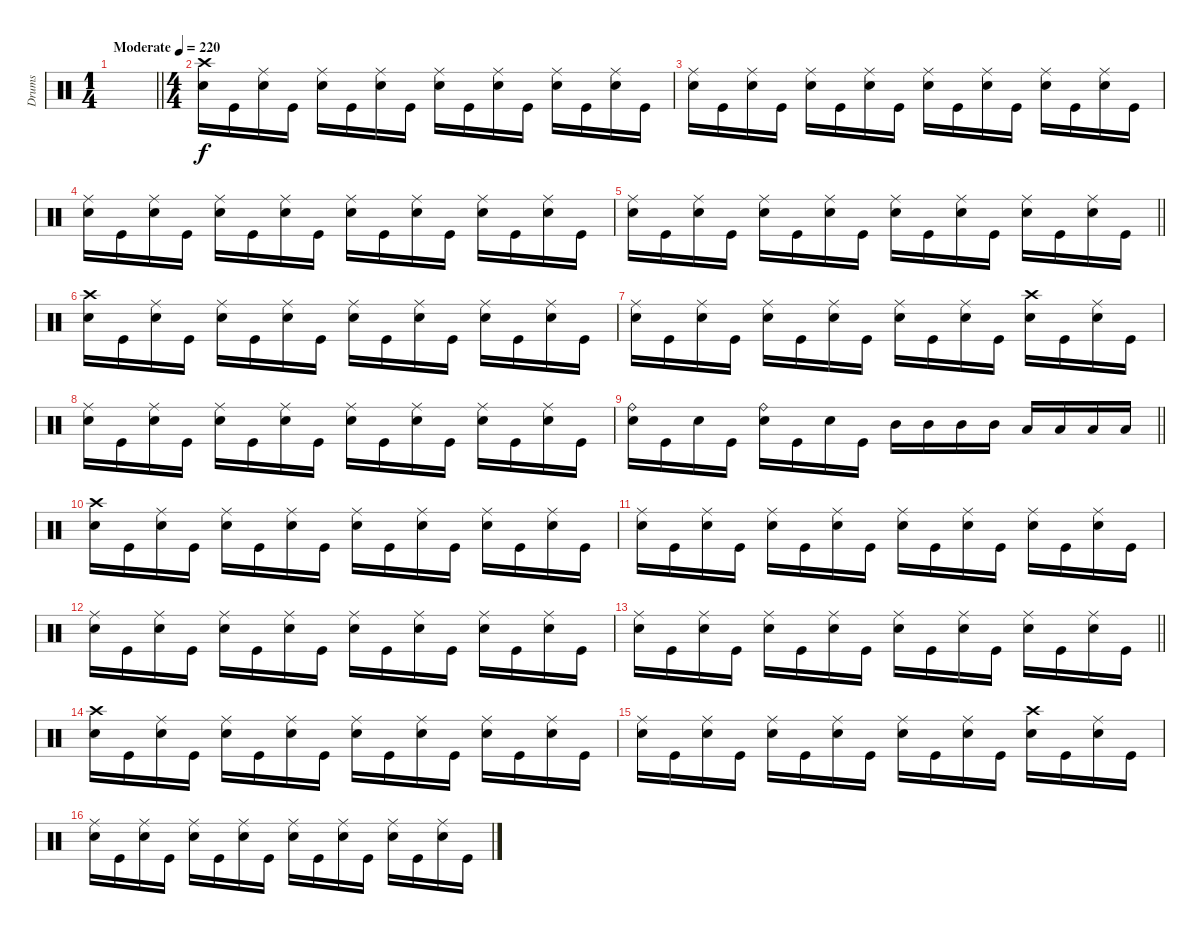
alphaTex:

\track ("Drums" "Drums") {instrument percussion}
\staff
\articulation defaults
\ts (1 4)
\tempo (220 "Moderate")
\clef neutral
\barLineRight lightlight
\ks c
|
\ts (4 4)
("Crash high (hit)" "Electric Snare (hit)").16 "Kick (hit)".16 ("Ride (middle)" "Electric Snare (hit)").16 "Kick (hit)".16 ("Ride (middle)" "Electric Snare (hit)").16 "Kick (hit)".16 ("Ride (middle)" "Electric Snare (hit)").16 "Kick (hit)".16 ("Ride (middle)" "Electric Snare (hit)").16 "Kick (hit)".16 ("Ride (middle)" "Electric Snare (hit)").16 "Kick (hit)".16 ("Ride (middle)" "Electric Snare (hit)").16 "Kick (hit)".16 ("Ride (middle)" "Electric Snare (hit)").16 "Kick (hit)".16 |
("Ride (middle)" "Electric Snare (hit)").16 "Kick (hit)".16 ("Ride (middle)" "Electric Snare (hit)").16 "Kick (hit)".16 ("Ride (middle)" "Electric Snare (hit)").16 "Kick (hit)".16 ("Ride (middle)" "Electric Snare (hit)").16 "Kick (hit)".16 ("Ride (middle)" "Electric Snare (hit)").16 "Kick (hit)".16 ("Ride (middle)" "Electric Snare (hit)").16 "Kick (hit)".16 ("Ride (middle)" "Electric Snare (hit)").16 "Kick (hit)".16 ("Ride (middle)" "Electric Snare (hit)").16 "Kick (hit)".16 |
("Ride (middle)" "Electric Snare (hit)").16 "Kick (hit)".16 ("Ride (middle)" "Electric Snare (hit)").16 "Kick (hit)".16 ("Ride (middle)" "Electric Snare (hit)").16 "Kick (hit)".16 ("Ride (middle)" "Electric Snare (hit)").16 "Kick (hit)".16 ("Ride (middle)" "Electric Snare (hit)").16 "Kick (hit)".16 ("Ride (middle)" "Electric Snare (hit)").16 "Kick (hit)".16 ("Ride (middle)" "Electric Snare (hit)").16 "Kick (hit)".16 ("Ride (middle)" "Electric Snare (hit)").16 "Kick (hit)".16 |
\barLineRight lightlight
("Ride (middle)" "Electric Snare (hit)").16 "Kick (hit)".16 ("Ride (middle)" "Electric Snare (hit)").16 "Kick (hit)".16 ("Ride (middle)" "Electric Snare (hit)").16 "Kick (hit)".16 ("Ride (middle)" "Electric Snare (hit)").16 "Kick (hit)".16 ("Ride (middle)" "Electric Snare (hit)").16 "Kick (hit)".16 ("Ride (middle)" "Electric Snare (hit)").16 "Kick (hit)".16 ("Ride (middle)" "Electric Snare (hit)").16 "Kick (hit)".16 ("Ride (middle)" "Electric Snare (hit)").16 "Kick (hit)".16 |
("Crash high (hit)" "Electric Snare (hit)").16 "Kick (hit)".16 ("Ride (middle)" "Electric Snare (hit)").16 "Kick (hit)".16 ("Ride (middle)" "Electric Snare (hit)").16 "Kick (hit)".16 ("Ride (middle)" "Electric Snare (hit)").16 "Kick (hit)".16 ("Ride (middle)" "Electric Snare (hit)").16 "Kick (hit)".16 ("Ride (middle)" "Electric Snare (hit)").16 "Kick (hit)".16 ("Ride (middle)" "Electric Snare (hit)").16 "Kick (hit)".16 ("Ride (middle)" "Electric Snare (hit)").16 "Kick (hit)".16 |
("Ride (middle)" "Electric Snare (hit)").16 "Kick (hit)".16 ("Ride (middle)" "Electric Snare (hit)").16 "Kick (hit)".16 ("Ride (middle)" "Electric Snare (hit)").16 "Kick (hit)".16 ("Ride (middle)" "Electric Snare (hit)").16 "Kick (hit)".16 ("Ride (middle)" "Electric Snare (hit)").16 "Kick (hit)".16 ("Ride (middle)" "Electric Snare (hit)").16 "Kick (hit)".16 ("Crash high (hit)" "Electric Snare (hit)").16 "Kick (hit)".16 ("Ride (middle)" "Electric Snare (hit)").16 "Kick (hit)".16 |
("Ride (middle)" "Electric Snare (hit)").16 "Kick (hit)".16 ("Ride (middle)" "Electric Snare (hit)").16 "Kick (hit)".16 ("Ride (middle)" "Electric Snare (hit)").16 "Kick (hit)".16 ("Ride (middle)" "Electric Snare (hit)").16 "Kick (hit)".16 ("Ride (middle)" "Electric Snare (hit)").16 "Kick (hit)".16 ("Ride (middle)" "Electric Snare (hit)").16 "Kick (hit)".16 ("Ride (middle)" "Electric Snare (hit)").16 "Kick (hit)".16 ("Ride (middle)" "Electric Snare (hit)").16 "Kick (hit)".16 |
\barLineRight lightlight
("Ride (bell)" "Electric Snare (hit)").16 "Kick (hit)".16 "Electric Snare (hit)".16 "Kick (hit)".16 ("Ride (bell)" "Electric Snare (hit)").16 "Kick (hit)".16 "Electric Snare (hit)".16 "Kick (hit)".16 "Mid Tom (hit)".16 "Mid Tom (hit)".16 "Mid Tom (hit)".16 "Mid Tom (hit)".16 "Low Tom (hit)".16 "Low Tom (hit)".16 "Low Tom (hit)".16 "Low Tom (hit)".16 |
("Crash high (hit)" "Electric Snare (hit)").16 "Kick (hit)".16 ("Ride (middle)" "Electric Snare (hit)").16 "Kick (hit)".16 ("Ride (middle)" "Electric Snare (hit)").16 "Kick (hit)".16 ("Ride (middle)" "Electric Snare (hit)").16 "Kick (hit)".16 ("Ride (middle)" "Electric Snare (hit)").16 "Kick (hit)".16 ("Ride (middle)" "Electric Snare (hit)").16 "Kick (hit)".16 ("Ride (middle)" "Electric Snare (hit)").16 "Kick (hit)".16 ("Ride (middle)" "Electric Snare (hit)").16 "Kick (hit)".16 |
("Ride (middle)" "Electric Snare (hit)").16 "Kick (hit)".16 ("Ride (middle)" "Electric Snare (hit)").16 "Kick (hit)".16 ("Ride (middle)" "Electric Snare (hit)").16 "Kick (hit)".16 ("Ride (middle)" "Electric Snare (hit)").16 "Kick (hit)".16 ("Ride (middle)" "Electric Snare (hit)").16 "Kick (hit)".16 ("Ride (middle)" "Electric Snare (hit)").16 "Kick (hit)".16 ("Ride (middle)" "Electric Snare (hit)").16 "Kick (hit)".16 ("Ride (middle)" "Electric Snare (hit)").16 "Kick (hit)".16 |
("Ride (middle)" "Electric Snare (hit)").16 "Kick (hit)".16 ("Ride (middle)" "Electric Snare (hit)").16 "Kick (hit)".16 ("Ride (middle)" "Electric Snare (hit)").16 "Kick (hit)".16 ("Ride (middle)" "Electric Snare (hit)").16 "Kick (hit)".16 ("Ride (middle)" "Electric Snare (hit)").16 "Kick (hit)".16 ("Ride (middle)" "Electric Snare (hit)").16 "Kick (hit)".16 ("Ride (middle)" "Electric Snare (hit)").16 "Kick (hit)".16 ("Ride (middle)" "Electric Snare (hit)").16 "Kick (hit)".16 |
\barLineRight lightlight
("Ride (middle)" "Electric Snare (hit)").16 "Kick (hit)".16 ("Ride (middle)" "Electric Snare (hit)").16 "Kick (hit)".16 ("Ride (middle)" "Electric Snare (hit)").16 "Kick (hit)".16 ("Ride (middle)" "Electric Snare (hit)").16 "Kick (hit)".16 ("Ride (middle)" "Electric Snare (hit)").16 "Kick (hit)".16 ("Ride (middle)" "Electric Snare (hit)").16 "Kick (hit)".16 ("Ride (middle)" "Electric Snare (hit)").16 "Kick (hit)".16 ("Ride (middle)" "Electric Snare (hit)").16 "Kick (hit)".16 |
("Crash high (hit)" "Electric Snare (hit)").16 "Kick (hit)".16 ("Ride (middle)" "Electric Snare (hit)").16 "Kick (hit)".16 ("Ride (middle)" "Electric Snare (hit)").16 "Kick (hit)".16 ("Ride (middle)" "Electric Snare (hit)").16 "Kick (hit)".16 ("Ride (middle)" "Electric Snare (hit)").16 "Kick (hit)".16 ("Ride (middle)" "Electric Snare (hit)").16 "Kick (hit)".16 ("Ride (middle)" "Electric Snare (hit)").16 "Kick (hit)".16 ("Ride (middle)" "Electric Snare (hit)").16 "Kick (hit)".16 |
("Ride (middle)" "Electric Snare (hit)").16 "Kick (hit)".16 ("Ride (middle)" "Electric Snare (hit)").16 "Kick (hit)".16 ("Ride (middle)" "Electric Snare (hit)").16 "Kick (hit)".16 ("Ride (middle)" "Electric Snare (hit)").16 "Kick (hit)".16 ("Ride (middle)" "Electric Snare (hit)").16 "Kick (hit)".16 ("Ride (middle)" "Electric Snare (hit)").16 "Kick (hit)".16 ("Crash high (hit)" "Electric Snare (hit)").16 "Kick (hit)".16 ("Ride (middle)" "Electric Snare (hit)").16 "Kick (hit)".16 |
("Ride (middle)" "Electric Snare (hit)").16 "Kick (hit)".16 ("Ride (middle)" "Electric Snare (hit)").16 "Kick (hit)".16 ("Ride (middle)" "Electric Snare (hit)").16 "Kick (hit)".16 ("Ride (middle)" "Electric Snare (hit)").16 "Kick (hit)".16 ("Ride (middle)" "Electric Snare (hit)").16 "Kick (hit)".16 ("Ride (middle)" "Electric Snare (hit)").16 "Kick (hit)".16 ("Ride (middle)" "Electric Snare (hit)").16 "Kick (hit)".16 ("Ride (middle)" "Electric Snare (hit)").16 "Kick (hit)".16
